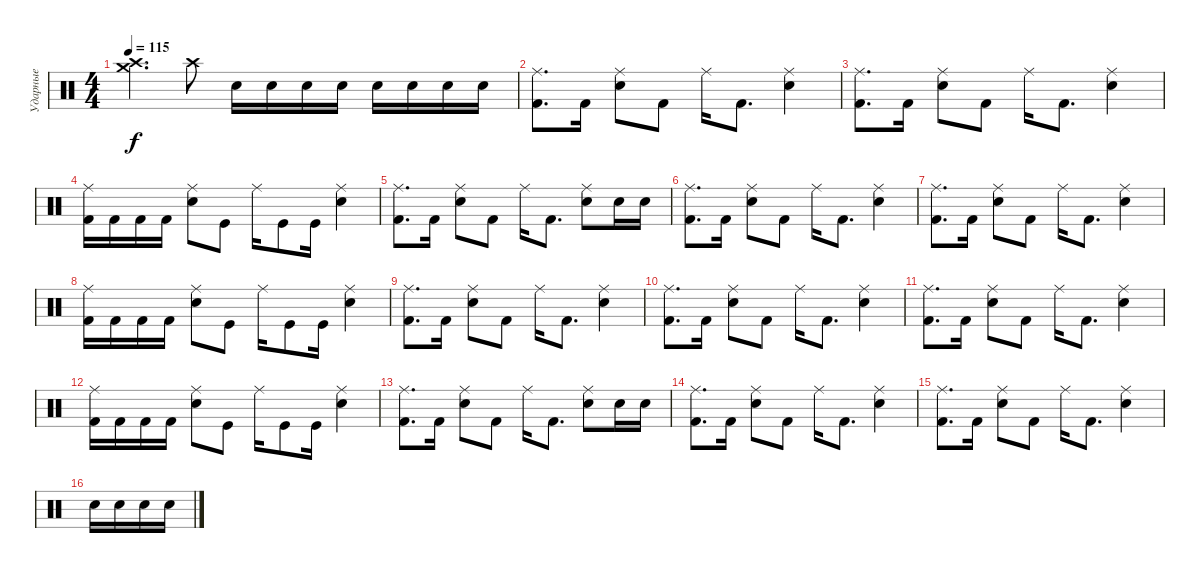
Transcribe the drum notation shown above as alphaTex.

\track ("Ударные" "Ударные") {instrument percussion}
\staff {score}
\articulation defaults
\ts (4 4)
\tempo 115
\clef neutral
\ks c
("Crash medium (hit)" "Crash high (hit)").4{d dy f} "Crash high (hit)".8 "Snare (hit) 2".16 "Snare (hit) 2".16 "Snare (hit) 2".16 "Snare (hit) 2".16 "Snare (hit) 2".16 "Snare (hit) 2".16 "Snare (hit) 2".16 "Snare (hit) 2".16 |
("Kick (hit) 2" "Ride (middle)").8{d} "Kick (hit) 2".16 ("Snare (hit) 2" "Ride (middle)").8 "Kick (hit) 2".8 "Ride (middle)".16 "Kick (hit) 2".8{d} ("Snare (hit) 2" "Ride (middle)").4 |
("Kick (hit) 2" "Ride (middle)").8{d} "Kick (hit) 2".16 ("Snare (hit) 2" "Ride (middle)").8 "Kick (hit) 2".8 "Ride (middle)".16 "Kick (hit) 2".8{d} ("Snare (hit) 2" "Ride (middle)").4 |
("Kick (hit) 2" "Ride (middle)").16 "Kick (hit) 2".16 "Kick (hit) 2".16 "Kick (hit) 2".16 ("Snare (hit) 2" "Ride (middle)").8 "Kick (hit)".8 "Ride (middle)".16 "Kick (hit)".8 "Kick (hit)".16 ("Snare (hit) 2" "Ride (middle)").4 |
("Kick (hit) 2" "Ride (middle)").8{d} "Kick (hit) 2".16 ("Snare (hit) 2" "Ride (middle)").8 "Kick (hit) 2".8 "Ride (middle)".16 "Kick (hit) 2".8{d} ("Snare (hit) 2" "Ride (middle)").8 "Snare (hit) 2".16 "Snare (hit) 2".16 |
("Kick (hit) 2" "Ride (middle)").8{d} "Kick (hit) 2".16 ("Snare (hit) 2" "Ride (middle)").8 "Kick (hit) 2".8 "Ride (middle)".16 "Kick (hit) 2".8{d} ("Snare (hit) 2" "Ride (middle)").4 |
("Kick (hit) 2" "Ride (middle)").8{d} "Kick (hit) 2".16 ("Snare (hit) 2" "Ride (middle)").8 "Kick (hit) 2".8 "Ride (middle)".16 "Kick (hit) 2".8{d} ("Snare (hit) 2" "Ride (middle)").4 |
("Kick (hit) 2" "Ride (middle)").16 "Kick (hit) 2".16 "Kick (hit) 2".16 "Kick (hit) 2".16 ("Snare (hit) 2" "Ride (middle)").8 "Kick (hit)".8 "Ride (middle)".16 "Kick (hit)".8 "Kick (hit)".16 ("Snare (hit) 2" "Ride (middle)").4 |
("Kick (hit) 2" "Ride (middle)").8{d} "Kick (hit) 2".16 ("Snare (hit) 2" "Ride (middle)").8 "Kick (hit) 2".8 "Ride (middle)".16 "Kick (hit) 2".8{d} ("Snare (hit) 2" "Ride (middle)").4 |
("Kick (hit) 2" "Ride (middle)").8{d} "Kick (hit) 2".16 ("Snare (hit) 2" "Ride (middle)").8 "Kick (hit) 2".8 "Ride (middle)".16 "Kick (hit) 2".8{d} ("Snare (hit) 2" "Ride (middle)").4 |
("Kick (hit) 2" "Ride (middle)").8{d} "Kick (hit) 2".16 ("Snare (hit) 2" "Ride (middle)").8 "Kick (hit) 2".8 "Ride (middle)".16 "Kick (hit) 2".8{d} ("Snare (hit) 2" "Ride (middle)").4 |
("Kick (hit) 2" "Ride (middle)").16 "Kick (hit) 2".16 "Kick (hit) 2".16 "Kick (hit) 2".16 ("Snare (hit) 2" "Ride (middle)").8 "Kick (hit)".8 "Ride (middle)".16 "Kick (hit)".8 "Kick (hit)".16 ("Snare (hit) 2" "Ride (middle)").4 |
("Kick (hit) 2" "Ride (middle)").8{d} "Kick (hit) 2".16 ("Snare (hit) 2" "Ride (middle)").8 "Kick (hit) 2".8 "Ride (middle)".16 "Kick (hit) 2".8{d} ("Snare (hit) 2" "Ride (middle)").8 "Snare (hit) 2".16 "Snare (hit) 2".16 |
("Kick (hit) 2" "Ride (middle)").8{d} "Kick (hit) 2".16 ("Snare (hit) 2" "Ride (middle)").8 "Kick (hit) 2".8 "Ride (middle)".16 "Kick (hit) 2".8{d} ("Snare (hit) 2" "Ride (middle)").4 |
("Kick (hit) 2" "Ride (middle)").8{d} "Kick (hit) 2".16 ("Snare (hit) 2" "Ride (middle)").8 "Kick (hit) 2".8 "Ride (middle)".16 "Kick (hit) 2".8{d} ("Snare (hit) 2" "Ride (middle)").4 |
"Snare (hit) 2".16 "Snare (hit) 2".16 "Snare (hit) 2".16 "Snare (hit) 2".16
